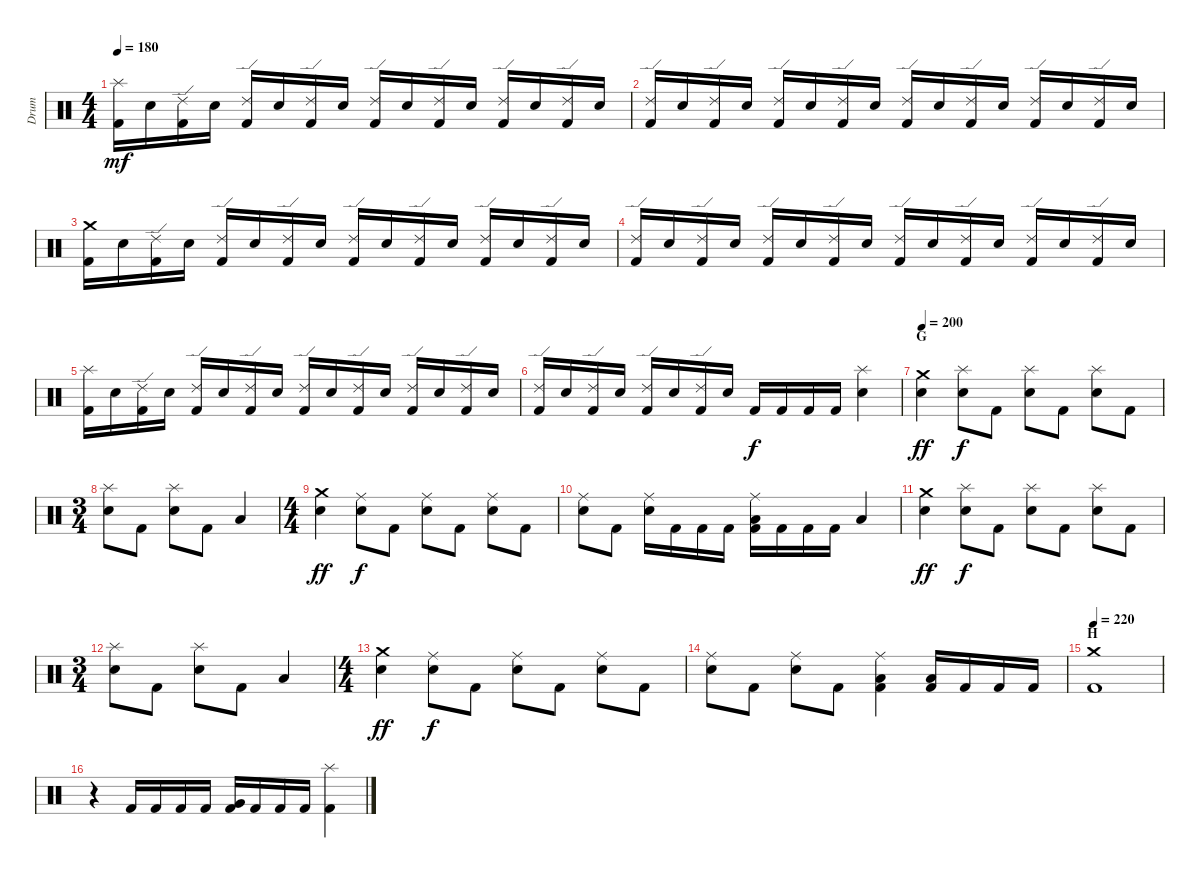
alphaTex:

\track ("Drum" "Drum") {instrument percussion}
\staff {score}
\articulation defaults
\ts (4 4)
\tempo 180
\clef neutral
\ks c
("Splash (hit)" "Kick (hit) 2").16{dy mf} "Electric Snare (hit)".16 ("Ride (edge) 2" "Kick (hit) 2").16 "Electric Snare (hit)".16 ("Ride (edge) 2" "Kick (hit) 2").16 "Electric Snare (hit)".16 ("Ride (edge) 2" "Kick (hit) 2").16 "Electric Snare (hit)".16 ("Ride (edge) 2" "Kick (hit) 2").16 "Electric Snare (hit)".16 ("Ride (edge) 2" "Kick (hit) 2").16 "Electric Snare (hit)".16 ("Ride (edge) 2" "Kick (hit) 2").16 "Electric Snare (hit)".16 ("Ride (edge) 2" "Kick (hit) 2").16 "Electric Snare (hit)".16 |
("Ride (edge) 2" "Kick (hit) 2").16 "Electric Snare (hit)".16 ("Ride (edge) 2" "Kick (hit) 2").16 "Electric Snare (hit)".16 ("Ride (edge) 2" "Kick (hit) 2").16 "Electric Snare (hit)".16 ("Ride (edge) 2" "Kick (hit) 2").16 "Electric Snare (hit)".16 ("Ride (edge) 2" "Kick (hit) 2").16 "Electric Snare (hit)".16 ("Ride (edge) 2" "Kick (hit) 2").16 "Electric Snare (hit)".16 ("Ride (edge) 2" "Kick (hit) 2").16 "Electric Snare (hit)".16 ("Ride (edge) 2" "Kick (hit) 2").16 "Electric Snare (hit)".16 |
("Crash medium (hit)" "Kick (hit) 2").16 "Electric Snare (hit)".16 ("Ride (edge) 2" "Kick (hit) 2").16 "Electric Snare (hit)".16 ("Ride (edge) 2" "Kick (hit) 2").16 "Electric Snare (hit)".16 ("Ride (edge) 2" "Kick (hit) 2").16 "Electric Snare (hit)".16 ("Ride (edge) 2" "Kick (hit) 2").16 "Electric Snare (hit)".16 ("Ride (edge) 2" "Kick (hit) 2").16 "Electric Snare (hit)".16 ("Ride (edge) 2" "Kick (hit) 2").16 "Electric Snare (hit)".16 ("Ride (edge) 2" "Kick (hit) 2").16 "Electric Snare (hit)".16 |
("Ride (edge) 2" "Kick (hit) 2").16 "Electric Snare (hit)".16 ("Ride (edge) 2" "Kick (hit) 2").16 "Electric Snare (hit)".16 ("Ride (edge) 2" "Kick (hit) 2").16 "Electric Snare (hit)".16 ("Ride (edge) 2" "Kick (hit) 2").16 "Electric Snare (hit)".16 ("Ride (edge) 2" "Kick (hit) 2").16 "Electric Snare (hit)".16 ("Ride (edge) 2" "Kick (hit) 2").16 "Electric Snare (hit)".16 ("Ride (edge) 2" "Kick (hit) 2").16 "Electric Snare (hit)".16 ("Ride (edge) 2" "Kick (hit) 2").16 "Electric Snare (hit)".16 |
("Splash (hit)" "Kick (hit) 2").16 "Electric Snare (hit)".16 ("Ride (edge) 2" "Kick (hit) 2").16 "Electric Snare (hit)".16 ("Ride (edge) 2" "Kick (hit) 2").16 "Electric Snare (hit)".16 ("Ride (edge) 2" "Kick (hit) 2").16 "Electric Snare (hit)".16 ("Ride (edge) 2" "Kick (hit) 2").16 "Electric Snare (hit)".16 ("Ride (edge) 2" "Kick (hit) 2").16 "Electric Snare (hit)".16 ("Ride (edge) 2" "Kick (hit) 2").16 "Electric Snare (hit)".16 ("Ride (edge) 2" "Kick (hit) 2").16 "Electric Snare (hit)".16 |
("Ride (edge) 2" "Kick (hit) 2").16 "Electric Snare (hit)".16 ("Ride (edge) 2" "Kick (hit) 2").16 "Electric Snare (hit)".16 ("Ride (edge) 2" "Kick (hit) 2").16 "Electric Snare (hit)".16 ("Ride (edge) 2" "Kick (hit) 2").16 "Electric Snare (hit)".16 "Kick (hit) 2".16{dy f} "Kick (hit) 2".16 "Kick (hit) 2".16 "Kick (hit) 2".16 ("Splash (hit)" "Electric Snare (hit)").4 |
\section ("" "G")
\tempo 200
("Crash medium (hit)" "Electric Snare (hit)").4{dy ff} ("Splash (hit)" "Electric Snare (hit)").8{dy f} "Kick (hit) 2".8 ("Splash (hit)" "Electric Snare (hit)").8 "Kick (hit) 2".8 ("Splash (hit)" "Electric Snare (hit)").8 "Kick (hit) 2".8 |
\ts (3 4)
("Splash (hit)" "Electric Snare (hit)").8 "Kick (hit) 2".8 ("Splash (hit)" "Electric Snare (hit)").8 "Kick (hit) 2".8 "Low Tom (hit)".4 |
\ts (4 4)
("Crash medium (hit)" "Electric Snare (hit)").4{dy ff} ("Ride (middle)" "Electric Snare (hit)").8{dy f} "Kick (hit) 2".8 ("Ride (middle)" "Electric Snare (hit)").8 "Kick (hit) 2".8 ("Ride (middle)" "Electric Snare (hit)").8 "Kick (hit) 2".8 |
("Ride (middle)" "Electric Snare (hit)").8 "Kick (hit) 2".8 ("Ride (middle)" "Electric Snare (hit)").16 "Kick (hit) 2".16 "Kick (hit) 2".16 "Kick (hit) 2".16 ("Ride (middle)" "Low Tom (hit)" "Kick (hit) 2").16 "Kick (hit) 2".16 "Kick (hit) 2".16 "Kick (hit) 2".16 "Low Tom (hit)".4 |
("Crash medium (hit)" "Electric Snare (hit)").4{dy ff} ("Splash (hit)" "Electric Snare (hit)").8{dy f} "Kick (hit) 2".8 ("Splash (hit)" "Electric Snare (hit)").8 "Kick (hit) 2".8 ("Splash (hit)" "Electric Snare (hit)").8 "Kick (hit) 2".8 |
\ts (3 4)
("Splash (hit)" "Electric Snare (hit)").8 "Kick (hit) 2".8 ("Splash (hit)" "Electric Snare (hit)").8 "Kick (hit) 2".8 "Low Tom (hit)".4 |
\ts (4 4)
("Crash medium (hit)" "Electric Snare (hit)").4{dy ff} ("Ride (middle)" "Electric Snare (hit)").8{dy f} "Kick (hit) 2".8 ("Ride (middle)" "Electric Snare (hit)").8 "Kick (hit) 2".8 ("Ride (middle)" "Electric Snare (hit)").8 "Kick (hit) 2".8 |
("Ride (middle)" "Electric Snare (hit)").8 "Kick (hit) 2".8 ("Ride (middle)" "Electric Snare (hit)").8 "Kick (hit) 2".8 ("Ride (middle)" "Low Tom (hit)" "Kick (hit) 2").4 ("Low Tom (hit)" "Kick (hit) 2").16 "Kick (hit) 2".16 "Kick (hit) 2".16 "Kick (hit) 2".16 |
\section ("" "H")
\tempo 220
("Crash medium (hit)" "Kick (hit) 2").1 |
r.4 "Kick (hit) 2".16 "Kick (hit) 2".16 "Kick (hit) 2".16 "Kick (hit) 2".16 ("Very Low Tom (hit)" "Kick (hit) 2").16 "Kick (hit) 2".16 "Kick (hit) 2".16 "Kick (hit) 2".16 ("Splash (hit)" "Kick (hit) 2").4
